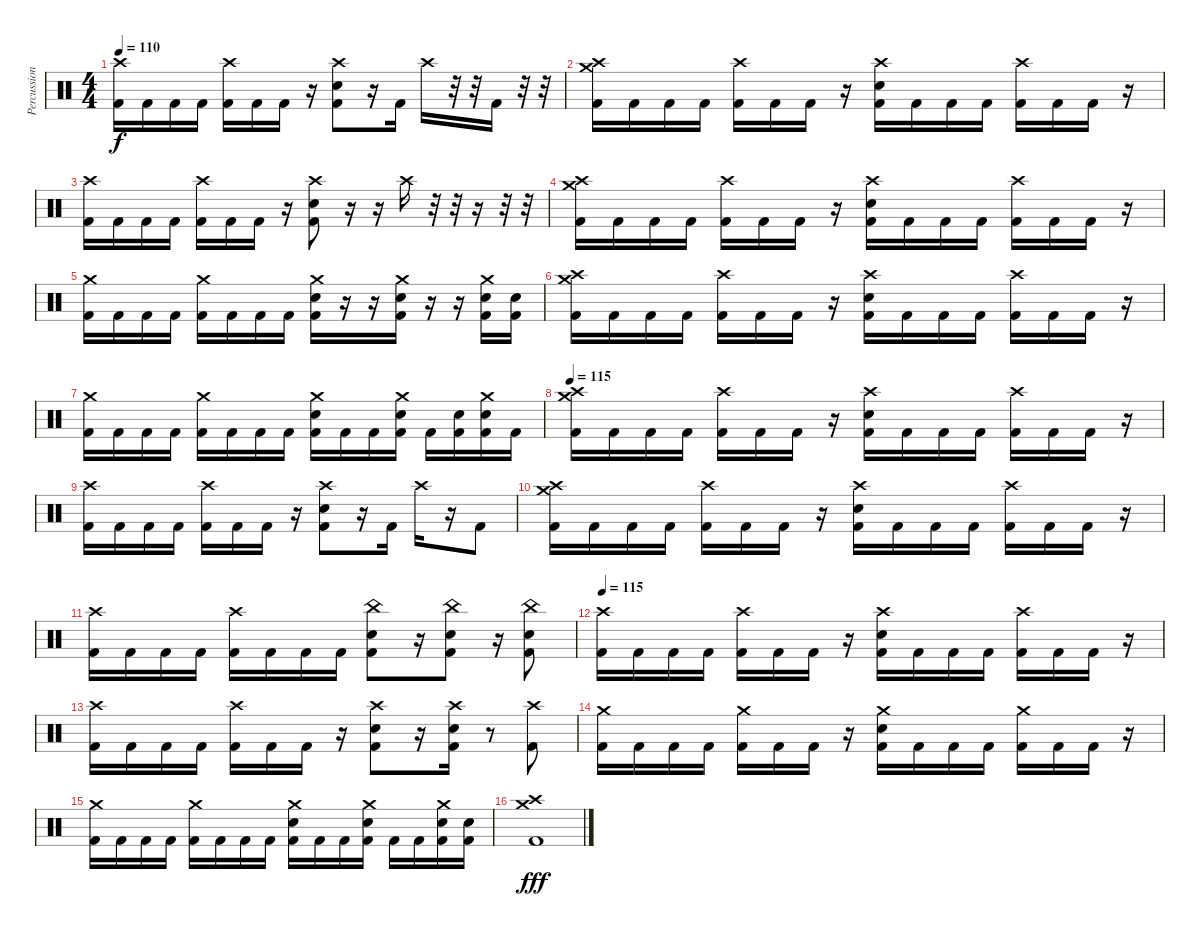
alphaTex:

\track ("Percussion" "Percussion") {instrument percussion}
\staff {score}
\articulation defaults
\ts (4 4)
\tempo 110
\clef neutral
\ks c
("Crash high (hit)" "Kick (hit) 2").16{dy f} "Kick (hit) 2".16 "Kick (hit) 2".16 "Kick (hit) 2".16 ("Crash high (hit)" "Kick (hit) 2").16 "Kick (hit) 2".16 "Kick (hit) 2".16 r.16 ("Crash high (hit)" "Snare (hit) 2" "Kick (hit) 2").8 r.16 "Kick (hit) 2".16 "Crash high (hit)".16 r.32 r.32 "Kick (hit) 2".16 r.32 r.32 |
("Crash high (hit)" "Crash medium (hit)" "Kick (hit) 2").16 "Kick (hit) 2".16 "Kick (hit) 2".16 "Kick (hit) 2".16 ("Crash high (hit)" "Kick (hit) 2").16 "Kick (hit) 2".16 "Kick (hit) 2".16 r.16 ("Crash high (hit)" "Snare (hit) 2" "Kick (hit) 2").16 "Kick (hit) 2".16 "Kick (hit) 2".16 "Kick (hit) 2".16 ("Crash high (hit)" "Kick (hit) 2").16 "Kick (hit) 2".16 "Kick (hit) 2".16 r.16 |
("Crash high (hit)" "Kick (hit) 2").16 "Kick (hit) 2".16 "Kick (hit) 2".16 "Kick (hit) 2".16 ("Crash high (hit)" "Kick (hit) 2").16 "Kick (hit) 2".16 "Kick (hit) 2".16 r.16 ("Crash high (hit)" "Snare (hit) 2" "Kick (hit) 2").8 r.16 r.16 "Crash high (hit)".16 r.32 r.32 r.16 r.32 r.32 |
("Crash high (hit)" "Crash medium (hit)" "Kick (hit) 2").16 "Kick (hit) 2".16 "Kick (hit) 2".16 "Kick (hit) 2".16 ("Crash high (hit)" "Kick (hit) 2").16 "Kick (hit) 2".16 "Kick (hit) 2".16 r.16 ("Crash high (hit)" "Snare (hit) 2" "Kick (hit) 2").16 "Kick (hit) 2".16 "Kick (hit) 2".16 "Kick (hit) 2".16 ("Crash high (hit)" "Kick (hit) 2").16 "Kick (hit) 2".16 "Kick (hit) 2".16 r.16 |
("Crash medium (hit)" "Kick (hit) 2").16 "Kick (hit) 2".16 "Kick (hit) 2".16 "Kick (hit) 2".16 ("Crash medium (hit)" "Kick (hit) 2").16 "Kick (hit) 2".16 "Kick (hit) 2".16 "Kick (hit) 2".16 ("Crash medium (hit)" "Snare (hit) 2" "Kick (hit) 2").16 r.16 r.16 ("Crash medium (hit)" "Snare (hit) 2" "Kick (hit) 2").16 r.16 r.16 ("Crash medium (hit)" "Snare (hit) 2" "Kick (hit) 2").16 ("Snare (hit) 2" "Kick (hit) 2").16 |
("Crash high (hit)" "Crash medium (hit)" "Kick (hit) 2").16 "Kick (hit) 2".16 "Kick (hit) 2".16 "Kick (hit) 2".16 ("Crash high (hit)" "Kick (hit) 2").16 "Kick (hit) 2".16 "Kick (hit) 2".16 r.16 ("Crash high (hit)" "Snare (hit) 2" "Kick (hit) 2").16 "Kick (hit) 2".16 "Kick (hit) 2".16 "Kick (hit) 2".16 ("Crash high (hit)" "Kick (hit) 2").16 "Kick (hit) 2".16 "Kick (hit) 2".16 r.16 |
("Crash medium (hit)" "Kick (hit) 2").16 "Kick (hit) 2".16 "Kick (hit) 2".16 "Kick (hit) 2".16 ("Crash medium (hit)" "Kick (hit) 2").16 "Kick (hit) 2".16 "Kick (hit) 2".16 "Kick (hit) 2".16 ("Crash medium (hit)" "Snare (hit) 2" "Kick (hit) 2").16 "Kick (hit) 2".16 "Kick (hit) 2".16 ("Crash medium (hit)" "Snare (hit) 2" "Kick (hit) 2").16 "Kick (hit) 2".16 ("Snare (hit) 2" "Kick (hit) 2").16 ("Crash medium (hit)" "Snare (hit) 2" "Kick (hit) 2").16 "Kick (hit) 2".16 |
\tempo 115
("Crash high (hit)" "Crash medium (hit)" "Kick (hit) 2").16 "Kick (hit) 2".16 "Kick (hit) 2".16 "Kick (hit) 2".16 ("Crash high (hit)" "Kick (hit) 2").16 "Kick (hit) 2".16 "Kick (hit) 2".16 r.16 ("Crash high (hit)" "Snare (hit) 2" "Kick (hit) 2").16 "Kick (hit) 2".16 "Kick (hit) 2".16 "Kick (hit) 2".16 ("Crash high (hit)" "Kick (hit) 2").16 "Kick (hit) 2".16 "Kick (hit) 2".16 r.16 |
("Crash high (hit)" "Kick (hit) 2").16 "Kick (hit) 2".16 "Kick (hit) 2".16 "Kick (hit) 2".16 ("Crash high (hit)" "Kick (hit) 2").16 "Kick (hit) 2".16 "Kick (hit) 2".16 r.16 ("Crash high (hit)" "Snare (hit) 2" "Kick (hit) 2").8 r.16 "Kick (hit) 2".16 "Crash high (hit)".16 r.16 "Kick (hit) 2".8 |
("Crash high (hit)" "Crash medium (hit)" "Kick (hit) 2").16 "Kick (hit) 2".16 "Kick (hit) 2".16 "Kick (hit) 2".16 ("Crash high (hit)" "Kick (hit) 2").16 "Kick (hit) 2".16 "Kick (hit) 2".16 r.16 ("Crash high (hit)" "Snare (hit) 2" "Kick (hit) 2").16 "Kick (hit) 2".16 "Kick (hit) 2".16 "Kick (hit) 2".16 ("Crash high (hit)" "Kick (hit) 2").16 "Kick (hit) 2".16 "Kick (hit) 2".16 r.16 |
("Crash high (hit)" "Kick (hit) 2").16 "Kick (hit) 2".16 "Kick (hit) 2".16 "Kick (hit) 2".16 ("Crash high (hit)" "Kick (hit) 2").16 "Kick (hit) 2".16 "Kick (hit) 2".16 "Kick (hit) 2".16 ("China (hit)" "Snare (hit) 2" "Kick (hit) 2").8 r.16 ("China (hit)" "Snare (hit) 2" "Kick (hit) 2").8 r.16 ("China (hit)" "Snare (hit) 2" "Kick (hit) 2").8 |
\tempo 115
("Crash high (hit)" "Kick (hit) 2").16 "Kick (hit) 2".16 "Kick (hit) 2".16 "Kick (hit) 2".16 ("Crash high (hit)" "Kick (hit) 2").16 "Kick (hit) 2".16 "Kick (hit) 2".16 r.16 ("Crash high (hit)" "Snare (hit) 2" "Kick (hit) 2").16 "Kick (hit) 2".16 "Kick (hit) 2".16 "Kick (hit) 2".16 ("Crash high (hit)" "Kick (hit) 2").16 "Kick (hit) 2".16 "Kick (hit) 2".16 r.16 |
("Crash high (hit)" "Kick (hit) 2").16 "Kick (hit) 2".16 "Kick (hit) 2".16 "Kick (hit) 2".16 ("Crash high (hit)" "Kick (hit) 2").16 "Kick (hit) 2".16 "Kick (hit) 2".16 r.16 ("Crash high (hit)" "Snare (hit) 2" "Kick (hit) 2").8 r.16 ("Crash high (hit)" "Snare (hit) 2" "Kick (hit) 2").16 r.8 ("Crash high (hit)" "Kick (hit) 2").8 |
("Crash medium (hit)" "Kick (hit) 2").16 "Kick (hit) 2".16 "Kick (hit) 2".16 "Kick (hit) 2".16 ("Crash medium (hit)" "Kick (hit) 2").16 "Kick (hit) 2".16 "Kick (hit) 2".16 r.16 ("Crash medium (hit)" "Snare (hit) 2" "Kick (hit) 2").16 "Kick (hit) 2".16 "Kick (hit) 2".16 "Kick (hit) 2".16 ("Crash medium (hit)" "Kick (hit) 2").16 "Kick (hit) 2".16 "Kick (hit) 2".16 r.16 |
("Crash medium (hit)" "Kick (hit) 2").16 "Kick (hit) 2".16 "Kick (hit) 2".16 "Kick (hit) 2".16 ("Crash medium (hit)" "Kick (hit) 2").16 "Kick (hit) 2".16 "Kick (hit) 2".16 "Kick (hit) 2".16 ("Crash medium (hit)" "Snare (hit) 2" "Kick (hit) 2").16 "Kick (hit) 2".16 "Kick (hit) 2".16 ("Crash medium (hit)" "Snare (hit) 2" "Kick (hit) 2").16 "Kick (hit) 2".16 "Kick (hit) 2".16 ("Crash medium (hit)" "Snare (hit) 2" "Kick (hit) 2").16 ("Snare (hit) 2" "Kick (hit) 2").16 |
("Crash medium (hit)" "Crash high (hit)" "Kick (hit) 2").1{dy fff}
